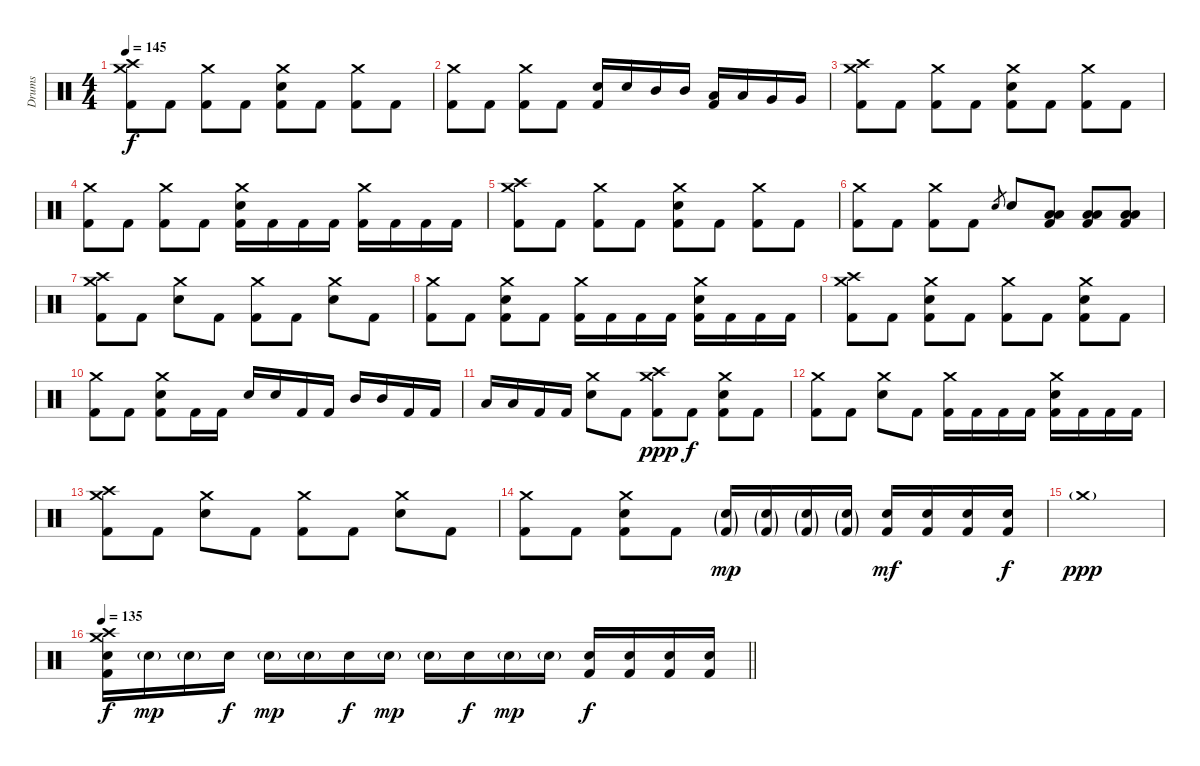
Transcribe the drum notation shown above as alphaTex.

\track ("Drums" "Drums") {instrument percussion}
\staff {score}
\articulation defaults
\ts (4 4)
\tempo 145
\clef neutral
\ks c
("Crash medium (hit)" "Crash high (hit)" "Kick (hit) 2").8{dy f} "Kick (hit) 2".8 ("Crash medium (hit)" "Kick (hit) 2").8 "Kick (hit) 2".8 ("Crash medium (hit)" "Electric Snare (hit)" "Kick (hit) 2").8 "Kick (hit) 2".8 ("Crash medium (hit)" "Kick (hit) 2").8 "Kick (hit) 2".8 |
("Crash medium (hit)" "Kick (hit) 2").8 "Kick (hit) 2".8 ("Crash medium (hit)" "Kick (hit) 2").8 "Kick (hit) 2".8 ("Electric Snare (hit)" "Kick (hit) 2").16 "Electric Snare (hit)".16 "Mid Tom (hit)".16 "Mid Tom (hit)".16 ("Low Tom (hit)" "Kick (hit) 2").16 "Low Tom (hit)".16 "Very Low Tom (hit)".16 "Very Low Tom (hit)".16 |
("Crash medium (hit)" "Crash high (hit)" "Kick (hit) 2").8 "Kick (hit) 2".8 ("Crash medium (hit)" "Kick (hit) 2").8 "Kick (hit) 2".8 ("Crash medium (hit)" "Electric Snare (hit)" "Kick (hit) 2").8 "Kick (hit) 2".8 ("Crash medium (hit)" "Kick (hit) 2").8 "Kick (hit) 2".8 |
("Crash medium (hit)" "Kick (hit) 2").8 "Kick (hit) 2".8 ("Crash medium (hit)" "Kick (hit) 2").8 "Kick (hit) 2".8 ("Crash medium (hit)" "Electric Snare (hit)" "Kick (hit) 2").16 "Kick (hit) 2".16 "Kick (hit) 2".16 "Kick (hit) 2".16 ("Crash medium (hit)" "Kick (hit) 2").16 "Kick (hit) 2".16 "Kick (hit) 2".16 "Kick (hit) 2".16 |
("Crash medium (hit)" "Crash high (hit)" "Kick (hit) 2").8 "Kick (hit) 2".8 ("Crash medium (hit)" "Kick (hit) 2").8 "Kick (hit) 2".8 ("Crash medium (hit)" "Electric Snare (hit)" "Kick (hit) 2").8 "Kick (hit) 2".8 ("Crash medium (hit)" "Kick (hit) 2").8 "Kick (hit) 2".8 |
("Crash medium (hit)" "Kick (hit) 2").8 "Kick (hit) 2".8 ("Crash medium (hit)" "Kick (hit) 2").8 "Kick (hit) 2".8 "Electric Snare (hit)".8{gr} "Electric Snare (hit)".8 ("Low Tom (hit)" "Low Floor Tom (hit)" "Kick (hit) 2").8 ("Low Tom (hit)" "Low Floor Tom (hit)" "Kick (hit) 2").8 ("Low Tom (hit)" "Low Floor Tom (hit)" "Kick (hit) 2").8 |
("Crash medium (hit)" "Crash high (hit)" "Kick (hit) 2").8 "Kick (hit) 2".8 ("Crash medium (hit)" "Electric Snare (hit)").8 "Kick (hit) 2".8 ("Crash medium (hit)" "Kick (hit) 2").8 "Kick (hit) 2".8 ("Crash medium (hit)" "Electric Snare (hit)").8 "Kick (hit) 2".8 |
("Crash medium (hit)" "Kick (hit) 2").8 "Kick (hit) 2".8 ("Crash medium (hit)" "Electric Snare (hit)" "Kick (hit) 2").8 "Kick (hit) 2".8 ("Crash medium (hit)" "Kick (hit) 2").16 "Kick (hit) 2".16 "Kick (hit) 2".16 "Kick (hit) 2".16 ("Crash medium (hit)" "Electric Snare (hit)" "Kick (hit) 2").16 "Kick (hit) 2".16 "Kick (hit) 2".16 "Kick (hit) 2".16 |
("Crash medium (hit)" "Crash high (hit)" "Kick (hit) 2").8 "Kick (hit) 2".8 ("Crash medium (hit)" "Electric Snare (hit)" "Kick (hit) 2").8 "Kick (hit) 2".8 ("Crash medium (hit)" "Kick (hit) 2").8 "Kick (hit) 2".8 ("Crash medium (hit)" "Electric Snare (hit)" "Kick (hit) 2").8 "Kick (hit) 2".8 |
("Crash medium (hit)" "Kick (hit) 2").8 "Kick (hit) 2".8 ("Crash medium (hit)" "Electric Snare (hit)" "Kick (hit) 2").8 "Kick (hit) 2".16 "Kick (hit) 2".16 "Electric Snare (hit)".16 "Electric Snare (hit)".16 "Kick (hit) 2".16 "Kick (hit) 2".16 "Mid Tom (hit)".16 "Mid Tom (hit)".16 "Kick (hit) 2".16 "Kick (hit) 2".16 |
"Low Tom (hit)".16 "Low Tom (hit)".16 "Kick (hit) 2".16 "Kick (hit) 2".16 ("Crash medium (hit)" "Electric Snare (hit)").8 "Kick (hit) 2".8 ("Crash medium (hit)" "Crash high (hit)" "Kick (hit) 2").8{dy ppp} "Kick (hit) 2".8{dy f} ("Crash medium (hit)" "Electric Snare (hit)" "Kick (hit) 2").8 "Kick (hit) 2".8 |
("Crash medium (hit)" "Kick (hit) 2").8 "Kick (hit) 2".8 ("Crash medium (hit)" "Electric Snare (hit)").8 "Kick (hit) 2".8 ("Crash medium (hit)" "Kick (hit) 2").16 "Kick (hit) 2".16 "Kick (hit) 2".16 "Kick (hit) 2".16 ("Crash medium (hit)" "Electric Snare (hit)" "Kick (hit) 2").16 "Kick (hit) 2".16 "Kick (hit) 2".16 "Kick (hit) 2".16 |
("Crash medium (hit)" "Crash high (hit)" "Kick (hit) 2").8 "Kick (hit) 2".8 ("Crash medium (hit)" "Electric Snare (hit)").8 "Kick (hit) 2".8 ("Crash medium (hit)" "Kick (hit) 2").8 "Kick (hit) 2".8 ("Crash medium (hit)" "Electric Snare (hit)").8 "Kick (hit) 2".8 |
("Crash medium (hit)" "Kick (hit) 2").8 "Kick (hit) 2".8 ("Crash medium (hit)" "Electric Snare (hit)" "Kick (hit) 2").8 "Kick (hit) 2".8 ("Electric Snare (hit)"{g} "Kick (hit) 2"{g}).16{dy mp} ("Electric Snare (hit)"{g} "Kick (hit) 2"{g}).16 ("Electric Snare (hit)"{g} "Kick (hit) 2"{g}).16 ("Electric Snare (hit)"{g} "Kick (hit) 2"{g}).16 ("Electric Snare (hit)" "Kick (hit) 2").16{dy mf} ("Electric Snare (hit)" "Kick (hit) 2").16 ("Electric Snare (hit)" "Kick (hit) 2").16 ("Electric Snare (hit)" "Kick (hit) 2").16{dy f} |
"Crash medium (hit)"{g}.1{dy ppp} |
\tempo 135
\barLineRight lightlight
("Crash high (hit)" "Crash medium (hit)" "Electric Snare (hit)" "Kick (hit) 2").16{dy f} "Electric Snare (hit)"{g}.16{dy mp} "Electric Snare (hit)"{g}.16 "Electric Snare (hit)".16{dy f} "Electric Snare (hit)"{g}.16{dy mp} "Electric Snare (hit)"{g}.16 "Electric Snare (hit)".16{dy f} "Electric Snare (hit)"{g}.16{dy mp} "Electric Snare (hit)"{g}.16 "Electric Snare (hit)".16{dy f} "Electric Snare (hit)"{g}.16{dy mp} "Electric Snare (hit)"{g}.16 ("Electric Snare (hit)" "Kick (hit) 2").16{dy f} ("Electric Snare (hit)" "Kick (hit) 2").16 ("Electric Snare (hit)" "Kick (hit) 2").16 ("Electric Snare (hit)" "Kick (hit) 2").16
